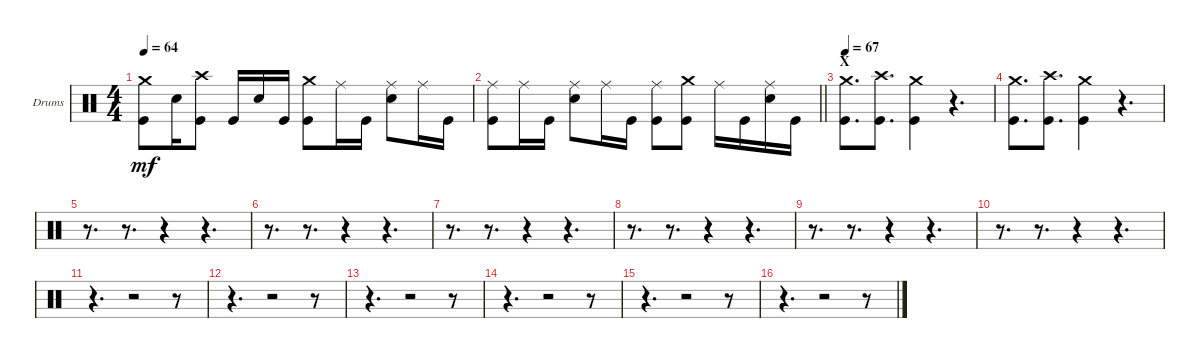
\bracketExtendMode groupsimilarinstruments
\firstSystemTrackNameOrientation horizontal
\otherSystemsTrackNameOrientation horizontal
\track ("Drumkit" "Drums") {instrument percussion}
\staff {score}
\articulation defaults
\ts (4 4)
\tempo 64
\clef neutral
\ks c
("Crash medium (hit)" "Kick (hit)").8{dy mf} "Snare (hit) 2".16 ("Kick (hit)" "Crash high (hit)").8 "Kick (hit)".16 "Snare (hit) 2".16 "Kick (hit)".16 ("Crash medium (hit)" "Kick (hit)").8 "Ride (middle)".16 "Kick (hit)".16 ("Snare (hit) 2" "Ride (middle)").8 "Ride (middle)".16 "Kick (hit)".16 |
\barLineRight lightlight
("Ride (middle)" "Kick (hit)").8 "Ride (middle)".16 "Kick (hit)".16 ("Ride (middle)" "Snare (hit) 2").8 "Ride (middle)".16 "Kick (hit)".16 ("Ride (middle)" "Kick (hit)").8 ("Crash medium (hit)" "Kick (hit)").8 "Ride (middle)".16 "Kick (hit)".16 ("Snare (hit) 2" "Ride (middle)").16 "Kick (hit)".16 |
\section ("" "X")
\tempo 67
("Crash medium (hit)" "Kick (hit)").8{d} ("Crash high (hit)" "Kick (hit)").8{d} ("Crash medium (hit)" "Kick (hit)").4 r.4{d} |
("Crash medium (hit)" "Kick (hit)").8{d} ("Crash high (hit)" "Kick (hit)").8{d} ("Crash medium (hit)" "Kick (hit)").4 r.4{d} |
r.8{d} r.8{d} r.4 r.4{d} |
r.8{d} r.8{d} r.4 r.4{d} |
r.8{d} r.8{d} r.4 r.4{d} |
r.8{d} r.8{d} r.4 r.4{d} |
r.8{d} r.8{d} r.4 r.4{d} |
r.8{d} r.8{d} r.4 r.4{d} |
r.4{d} r.2 r.8 |
r.4{d} r.2 r.8 |
r.4{d} r.2 r.8 |
r.4{d} r.2 r.8 |
r.4{d} r.2 r.8 |
r.4{d} r.2 r.8
